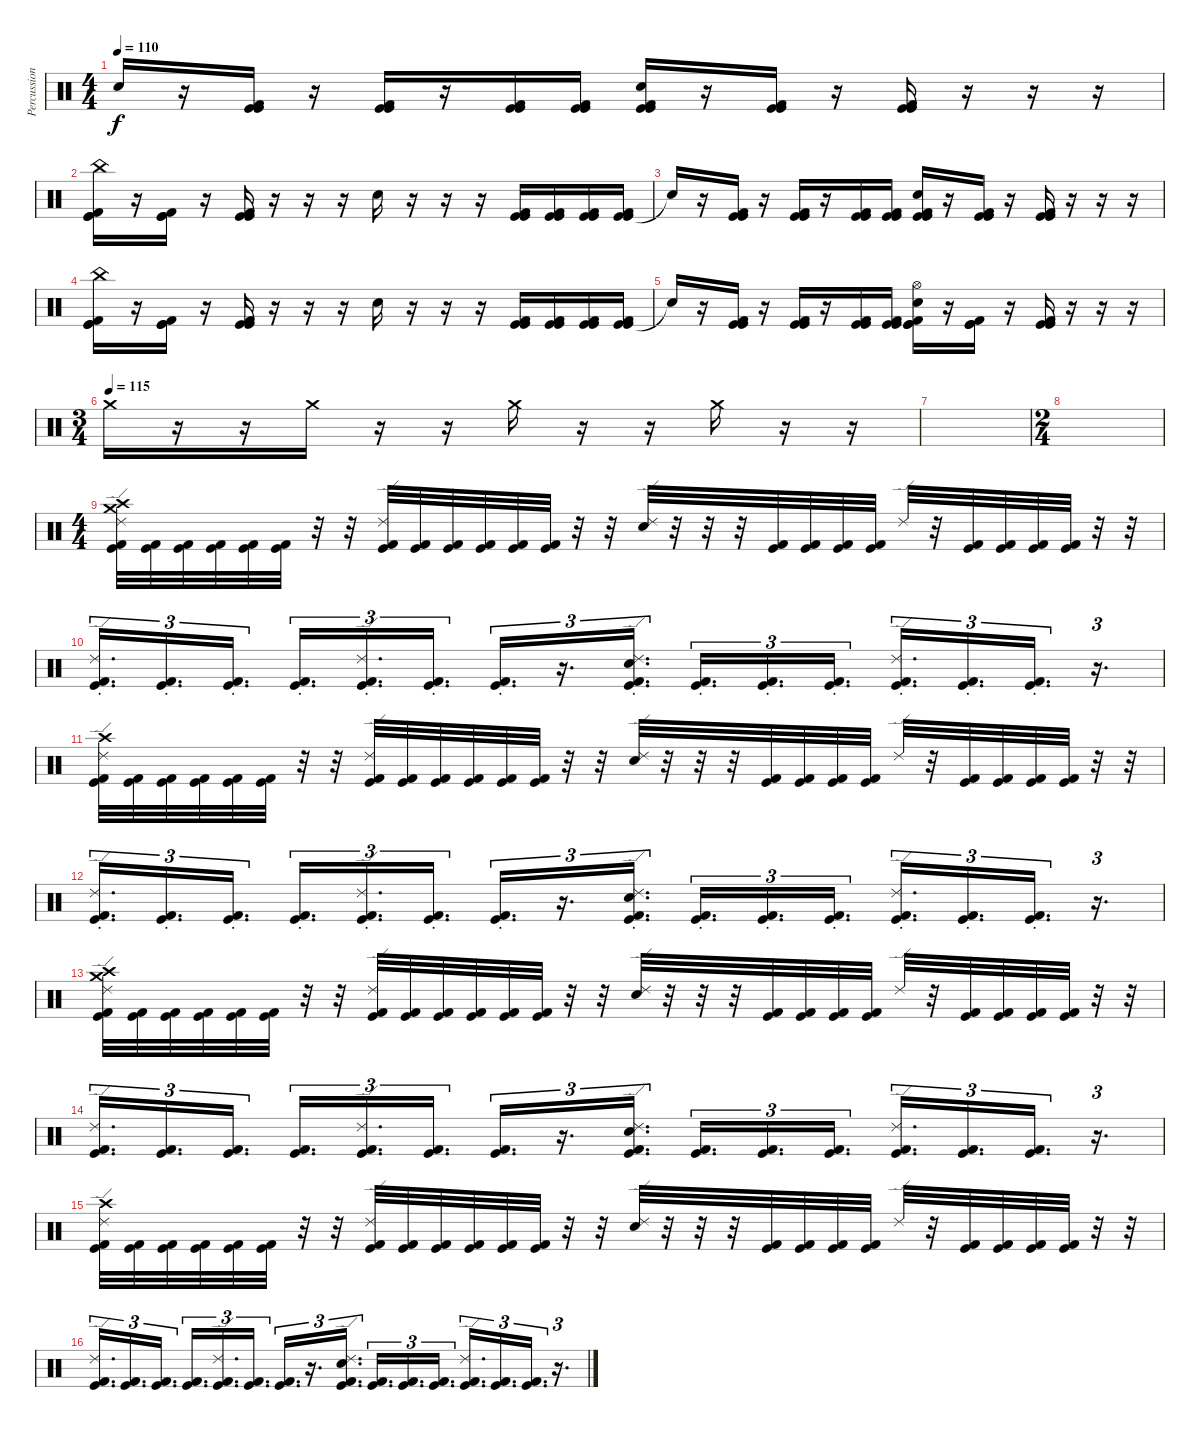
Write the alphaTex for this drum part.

\track ("Percussion" "Percussion") {instrument percussion}
\staff {score}
\articulation defaults
\ts (4 4)
\tempo 110
\clef neutral
\ks c "Snare (hit)"{t}.16{dy f}
r.16 ("Kick (hit)" "Kick (hit)" "Kick (hit) 2").16 r.16 ("Kick (hit)" "Kick (hit)" "Kick (hit) 2").16 r.16 ("Kick (hit)" "Kick (hit)" "Kick (hit) 2").16 ("Kick (hit)" "Kick (hit)" "Kick (hit) 2").16 ("Kick (hit)" "Electric Snare (hit)" "Kick (hit)" "Kick (hit) 2").16 r.16 ("Kick (hit)" "Kick (hit)" "Kick (hit) 2").16 r.16 ("Kick (hit)" "Kick (hit)" "Kick (hit) 2").16 r.16 r.16 r.16 |
("China (hit)" "Kick (hit)" "Kick (hit)" "Kick (hit) 2").16 r.16 ("Kick (hit)" "Kick (hit)" "Kick (hit) 2").16 r.16 ("Kick (hit)" "Kick (hit)" "Kick (hit) 2").16 r.16 r.16 r.16 "Electric Snare (hit)".16 r.16 r.16 r.16 ("Kick (hit)" "Kick (hit)" "Kick (hit) 2").16 ("Kick (hit)" "Kick (hit)" "Kick (hit) 2").16 ("Kick (hit)" "Kick (hit)" "Kick (hit) 2").16 ("Kick (hit)" "Kick (hit)" "Kick (hit) 2").16 |
"Snare (hit)"{t}.16 r.16 ("Kick (hit)" "Kick (hit)" "Kick (hit) 2").16 r.16 ("Kick (hit)" "Kick (hit)" "Kick (hit) 2").16 r.16 ("Kick (hit)" "Kick (hit)" "Kick (hit) 2").16 ("Kick (hit)" "Kick (hit)" "Kick (hit) 2").16 ("Kick (hit)" "Electric Snare (hit)" "Kick (hit)" "Kick (hit) 2").16 r.16 ("Kick (hit)" "Kick (hit)" "Kick (hit) 2").16 r.16 ("Kick (hit)" "Kick (hit)" "Kick (hit) 2").16 r.16 r.16 r.16 |
("China (hit)" "Kick (hit)" "Kick (hit)" "Kick (hit) 2").16 r.16 ("Kick (hit)" "Kick (hit)" "Kick (hit) 2").16 r.16 ("Kick (hit)" "Kick (hit)" "Kick (hit) 2").16 r.16 r.16 r.16 "Electric Snare (hit)".16 r.16 r.16 r.16 ("Kick (hit)" "Kick (hit)" "Kick (hit) 2").16 ("Kick (hit)" "Kick (hit)" "Kick (hit) 2").16 ("Kick (hit)" "Kick (hit)" "Kick (hit) 2").16 ("Kick (hit)" "Kick (hit)" "Kick (hit) 2").16 |
"Snare (hit)"{t}.16 r.16 ("Kick (hit)" "Kick (hit)" "Kick (hit) 2").16 r.16 ("Kick (hit)" "Kick (hit)" "Kick (hit) 2").16 r.16 ("Kick (hit)" "Kick (hit)" "Kick (hit) 2").16 ("Kick (hit)" "Kick (hit)" "Kick (hit) 2").16 ("Hi-Hat (open)" "Kick (hit)" "Electric Snare (hit)" "Kick (hit)" "Kick (hit) 2").16 r.16 ("Kick (hit)" "Kick (hit)" "Kick (hit) 2").16 r.16 ("Kick (hit)" "Kick (hit)" "Kick (hit) 2").16 r.16 r.16 r.16 |
\ts (3 4)
\tempo (115)
"Crash medium (hit)".16 r.16 r.16 "Crash medium (hit)".16 r.16 r.16 "Crash medium (hit)".16 r.16 r.16 "Crash medium (hit)".16 r.16 r.16 |
|
\ts (2 4)
|
\ts (4 4)
("Crash medium (hit)" "Ride (edge) 2" "Crash high (hit)" "Kick (hit)" "Kick (hit) 2").32 ("Kick (hit)" "Kick (hit) 2").32 ("Kick (hit)" "Kick (hit) 2").32 ("Kick (hit)" "Kick (hit) 2").32 ("Kick (hit)" "Kick (hit) 2").32 ("Kick (hit)" "Kick (hit) 2").32 r.32 r.32 ("Ride (edge) 2" "Kick (hit)" "Kick (hit) 2").32 ("Kick (hit)" "Kick (hit) 2").32 ("Kick (hit)" "Kick (hit) 2").32 ("Kick (hit)" "Kick (hit) 2").32 ("Kick (hit)" "Kick (hit) 2").32 ("Kick (hit)" "Kick (hit) 2").32 r.32 r.32 ("Ride (edge) 2" "Electric Snare (hit)").32 r.32 r.32 r.32 ("Kick (hit)" "Kick (hit) 2").32 ("Kick (hit)" "Kick (hit) 2").32 ("Kick (hit)" "Kick (hit) 2").32 ("Kick (hit)" "Kick (hit) 2").32 "Ride (edge) 2".32 r.32 ("Kick (hit)" "Kick (hit) 2").32 ("Kick (hit)" "Kick (hit) 2").32 ("Kick (hit)" "Kick (hit) 2").32 ("Kick (hit)" "Kick (hit) 2").32 r.32 r.32 |
("Ride (edge) 2"{st} "Kick (hit)"{st} "Kick (hit) 2"{st}).16{d tu (3 2)} ("Kick (hit)"{st} "Kick (hit) 2"{st}).16{d tu (3 2)} ("Kick (hit)"{st} "Kick (hit) 2"{st}).16{d tu (3 2)} ("Kick (hit)"{st} "Kick (hit) 2"{st}).16{d tu (3 2)} ("Ride (edge) 2"{st} "Kick (hit)"{st} "Kick (hit) 2"{st}).16{d tu (3 2)} ("Kick (hit)"{st} "Kick (hit) 2"{st}).16{d tu (3 2)} ("Kick (hit)"{st} "Kick (hit) 2"{st}).16{d tu (3 2)} r.16{d tu (3 2)} ("Ride (edge) 2"{st} "Electric Snare (hit)"{st} "Kick (hit)"{st} "Kick (hit) 2"{st}).16{d tu (3 2)} ("Kick (hit)"{st} "Kick (hit) 2"{st}).16{d tu (3 2)} ("Kick (hit)"{st} "Kick (hit) 2"{st}).16{d tu (3 2)} ("Kick (hit)"{st} "Kick (hit) 2"{st}).16{d tu (3 2)} ("Ride (edge) 2"{st} "Kick (hit)"{st} "Kick (hit) 2"{st}).16{d tu (3 2)} ("Kick (hit)"{st} "Kick (hit) 2"{st}).16{d tu (3 2)} ("Kick (hit)"{st} "Kick (hit) 2"{st}).16{d tu (3 2)} r.16{d tu (3 2)} |
("Ride (edge) 2" "Crash high (hit)" "Kick (hit)" "Kick (hit) 2").32 ("Kick (hit)" "Kick (hit) 2").32 ("Kick (hit)" "Kick (hit) 2").32 ("Kick (hit)" "Kick (hit) 2").32 ("Kick (hit)" "Kick (hit) 2").32 ("Kick (hit)" "Kick (hit) 2").32 r.32 r.32 ("Ride (edge) 2" "Kick (hit)" "Kick (hit) 2").32 ("Kick (hit)" "Kick (hit) 2").32 ("Kick (hit)" "Kick (hit) 2").32 ("Kick (hit)" "Kick (hit) 2").32 ("Kick (hit)" "Kick (hit) 2").32 ("Kick (hit)" "Kick (hit) 2").32 r.32 r.32 ("Ride (edge) 2" "Electric Snare (hit)").32 r.32 r.32 r.32 ("Kick (hit)" "Kick (hit) 2").32 ("Kick (hit)" "Kick (hit) 2").32 ("Kick (hit)" "Kick (hit) 2").32 ("Kick (hit)" "Kick (hit) 2").32 "Ride (edge) 2".32 r.32 ("Kick (hit)" "Kick (hit) 2").32 ("Kick (hit)" "Kick (hit) 2").32 ("Kick (hit)" "Kick (hit) 2").32 ("Kick (hit)" "Kick (hit) 2").32 r.32 r.32 |
("Ride (edge) 2"{st} "Kick (hit)"{st} "Kick (hit) 2"{st}).16{d tu (3 2)} ("Kick (hit)"{st} "Kick (hit) 2"{st}).16{d tu (3 2)} ("Kick (hit)"{st} "Kick (hit) 2"{st}).16{d tu (3 2)} ("Kick (hit)"{st} "Kick (hit) 2"{st}).16{d tu (3 2)} ("Ride (edge) 2"{st} "Kick (hit)"{st} "Kick (hit) 2"{st}).16{d tu (3 2)} ("Kick (hit)"{st} "Kick (hit) 2"{st}).16{d tu (3 2)} ("Kick (hit)"{st} "Kick (hit) 2"{st}).16{d tu (3 2)} r.16{d tu (3 2)} ("Ride (edge) 2"{st} "Electric Snare (hit)"{st} "Kick (hit)"{st} "Kick (hit) 2"{st}).16{d tu (3 2)} ("Kick (hit)"{st} "Kick (hit) 2"{st}).16{d tu (3 2)} ("Kick (hit)"{st} "Kick (hit) 2"{st}).16{d tu (3 2)} ("Kick (hit)"{st} "Kick (hit) 2"{st}).16{d tu (3 2)} ("Ride (edge) 2"{st} "Kick (hit)"{st} "Kick (hit) 2"{st}).16{d tu (3 2)} ("Kick (hit)"{st} "Kick (hit) 2"{st}).16{d tu (3 2)} ("Kick (hit)"{st} "Kick (hit) 2"{st}).16{d tu (3 2)} r.16{d tu (3 2)} |
("Crash medium (hit)" "Ride (edge) 2" "Crash high (hit)" "Kick (hit)" "Kick (hit) 2").32 ("Kick (hit)" "Kick (hit) 2").32 ("Kick (hit)" "Kick (hit) 2").32 ("Kick (hit)" "Kick (hit) 2").32 ("Kick (hit)" "Kick (hit) 2").32 ("Kick (hit)" "Kick (hit) 2").32 r.32 r.32 ("Ride (edge) 2" "Kick (hit)" "Kick (hit) 2").32 ("Kick (hit)" "Kick (hit) 2").32 ("Kick (hit)" "Kick (hit) 2").32 ("Kick (hit)" "Kick (hit) 2").32 ("Kick (hit)" "Kick (hit) 2").32 ("Kick (hit)" "Kick (hit) 2").32 r.32 r.32 ("Ride (edge) 2" "Electric Snare (hit)").32 r.32 r.32 r.32 ("Kick (hit)" "Kick (hit) 2").32 ("Kick (hit)" "Kick (hit) 2").32 ("Kick (hit)" "Kick (hit) 2").32 ("Kick (hit)" "Kick (hit) 2").32 "Ride (edge) 2".32 r.32 ("Kick (hit)" "Kick (hit) 2").32 ("Kick (hit)" "Kick (hit) 2").32 ("Kick (hit)" "Kick (hit) 2").32 ("Kick (hit)" "Kick (hit) 2").32 r.32 r.32 |
("Ride (edge) 2" "Kick (hit)" "Kick (hit) 2").16{d tu (3 2)} ("Kick (hit)" "Kick (hit) 2").16{d tu (3 2)} ("Kick (hit)" "Kick (hit) 2").16{d tu (3 2)} ("Kick (hit)" "Kick (hit) 2").16{d tu (3 2)} ("Ride (edge) 2" "Kick (hit)" "Kick (hit) 2").16{d tu (3 2)} ("Kick (hit)" "Kick (hit) 2").16{d tu (3 2)} ("Kick (hit)" "Kick (hit) 2").16{d tu (3 2)} r.16{d tu (3 2)} ("Ride (edge) 2" "Electric Snare (hit)" "Kick (hit)" "Kick (hit) 2").16{d tu (3 2)} ("Kick (hit)" "Kick (hit) 2").16{d tu (3 2)} ("Kick (hit)" "Kick (hit) 2").16{d tu (3 2)} ("Kick (hit)" "Kick (hit) 2").16{d tu (3 2)} ("Ride (edge) 2" "Kick (hit)" "Kick (hit) 2").16{d tu (3 2)} ("Kick (hit)" "Kick (hit) 2").16{d tu (3 2)} ("Kick (hit)" "Kick (hit) 2").16{d tu (3 2)} r.16{d tu (3 2)} |
("Ride (edge) 2" "Crash high (hit)" "Kick (hit)" "Kick (hit) 2").32 ("Kick (hit)" "Kick (hit) 2").32 ("Kick (hit)" "Kick (hit) 2").32 ("Kick (hit)" "Kick (hit) 2").32 ("Kick (hit)" "Kick (hit) 2").32 ("Kick (hit)" "Kick (hit) 2").32 r.32 r.32 ("Ride (edge) 2" "Kick (hit)" "Kick (hit) 2").32 ("Kick (hit)" "Kick (hit) 2").32 ("Kick (hit)" "Kick (hit) 2").32 ("Kick (hit)" "Kick (hit) 2").32 ("Kick (hit)" "Kick (hit) 2").32 ("Kick (hit)" "Kick (hit) 2").32 r.32 r.32 ("Ride (edge) 2" "Electric Snare (hit)").32 r.32 r.32 r.32 ("Kick (hit)" "Kick (hit) 2").32 ("Kick (hit)" "Kick (hit) 2").32 ("Kick (hit)" "Kick (hit) 2").32 ("Kick (hit)" "Kick (hit) 2").32 "Ride (edge) 2".32 r.32 ("Kick (hit)" "Kick (hit) 2").32 ("Kick (hit)" "Kick (hit) 2").32 ("Kick (hit)" "Kick (hit) 2").32 ("Kick (hit)" "Kick (hit) 2").32 r.32 r.32 |
("Ride (edge) 2" "Kick (hit)" "Kick (hit) 2").16{d tu (3 2)} ("Kick (hit)" "Kick (hit) 2").16{d tu (3 2)} ("Kick (hit)" "Kick (hit) 2").16{d tu (3 2)} ("Kick (hit)" "Kick (hit) 2").16{d tu (3 2)} ("Ride (edge) 2" "Kick (hit)" "Kick (hit) 2").16{d tu (3 2)} ("Kick (hit)" "Kick (hit) 2").16{d tu (3 2)} ("Kick (hit)" "Kick (hit) 2").16{d tu (3 2)} r.16{d tu (3 2)} ("Ride (edge) 2" "Electric Snare (hit)" "Kick (hit)" "Kick (hit) 2").16{d tu (3 2)} ("Kick (hit)" "Kick (hit) 2").16{d tu (3 2)} ("Kick (hit)" "Kick (hit) 2").16{d tu (3 2)} ("Kick (hit)" "Kick (hit) 2").16{d tu (3 2)} ("Ride (edge) 2" "Kick (hit)" "Kick (hit) 2").16{d tu (3 2)} ("Kick (hit)" "Kick (hit) 2").16{d tu (3 2)} ("Kick (hit)" "Kick (hit) 2").16{d tu (3 2)} r.16{d tu (3 2)}
